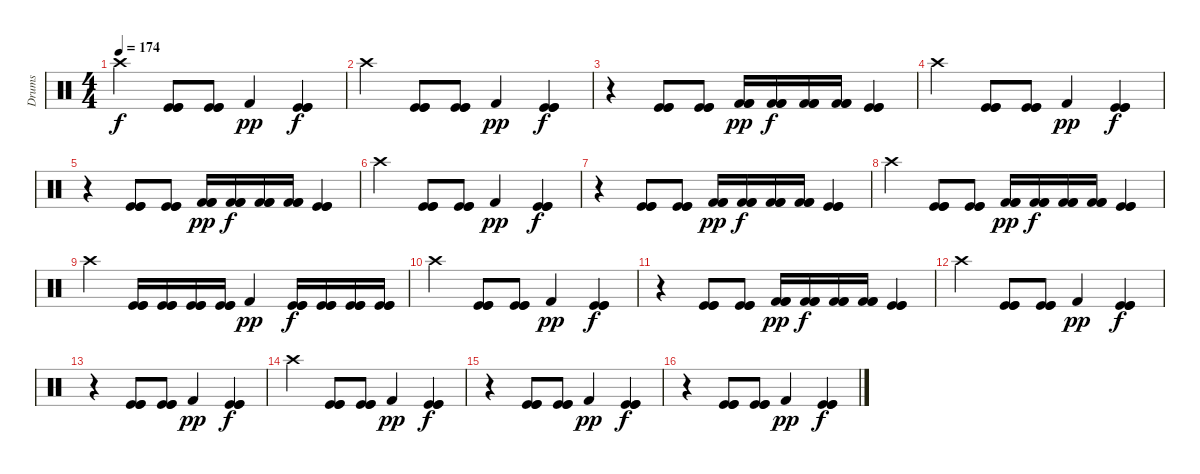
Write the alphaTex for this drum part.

\track ("Drums" "Drums") {instrument percussion}
\staff {score}
\articulation defaults
\ts (4 4)
\tempo 174
\clef neutral
\ks c "Crash high (hit)".4{dy f}
("Kick (hit)" "Kick (hit)" "Kick (hit)").8 ("Kick (hit)" "Kick (hit)" "Kick (hit)").8 "Kick (hit) 2".4{dy pp} ("Kick (hit)" "Kick (hit)" "Kick (hit)").4{dy f} |
"Crash high (hit)".4 ("Kick (hit)" "Kick (hit)" "Kick (hit)").8 ("Kick (hit)" "Kick (hit)" "Kick (hit)").8 "Kick (hit) 2".4{dy pp} ("Kick (hit)" "Kick (hit)" "Kick (hit)").4{dy f} |
r.4 ("Kick (hit)" "Kick (hit)" "Kick (hit)").8 ("Kick (hit)" "Kick (hit)" "Kick (hit)").8 ("Kick (hit) 2" "Kick (hit) 2" "Kick (hit) 2").16{dy pp} ("Kick (hit) 2" "Kick (hit) 2" "Kick (hit) 2").16{dy f} ("Kick (hit) 2" "Kick (hit) 2" "Kick (hit) 2").16 ("Kick (hit) 2" "Kick (hit) 2" "Kick (hit) 2").16 ("Kick (hit)" "Kick (hit)" "Kick (hit)").4 |
"Crash high (hit)".4 ("Kick (hit)" "Kick (hit)" "Kick (hit)").8 ("Kick (hit)" "Kick (hit)" "Kick (hit)").8 "Kick (hit) 2".4{dy pp} ("Kick (hit)" "Kick (hit)" "Kick (hit)").4{dy f} |
r.4 ("Kick (hit)" "Kick (hit)" "Kick (hit)").8 ("Kick (hit)" "Kick (hit)" "Kick (hit)").8 ("Kick (hit) 2" "Kick (hit) 2" "Kick (hit) 2").16{dy pp} ("Kick (hit) 2" "Kick (hit) 2" "Kick (hit) 2").16{dy f} ("Kick (hit) 2" "Kick (hit) 2" "Kick (hit) 2").16 ("Kick (hit) 2" "Kick (hit) 2" "Kick (hit) 2").16 ("Kick (hit)" "Kick (hit)" "Kick (hit)").4 |
"Crash high (hit)".4 ("Kick (hit)" "Kick (hit)" "Kick (hit)").8 ("Kick (hit)" "Kick (hit)" "Kick (hit)").8 "Kick (hit) 2".4{dy pp} ("Kick (hit)" "Kick (hit)" "Kick (hit)").4{dy f} |
r.4 ("Kick (hit)" "Kick (hit)" "Kick (hit)").8 ("Kick (hit)" "Kick (hit)" "Kick (hit)").8 ("Kick (hit) 2" "Kick (hit) 2" "Kick (hit) 2").16{dy pp} ("Kick (hit) 2" "Kick (hit) 2" "Kick (hit) 2").16{dy f} ("Kick (hit) 2" "Kick (hit) 2" "Kick (hit) 2").16 ("Kick (hit) 2" "Kick (hit) 2" "Kick (hit) 2").16 ("Kick (hit)" "Kick (hit)" "Kick (hit)").4 |
"Crash high (hit)".4 ("Kick (hit)" "Kick (hit)" "Kick (hit)").8 ("Kick (hit)" "Kick (hit)" "Kick (hit)").8 ("Kick (hit) 2" "Kick (hit) 2" "Kick (hit) 2").16{dy pp} ("Kick (hit) 2" "Kick (hit) 2" "Kick (hit) 2").16{dy f} ("Kick (hit) 2" "Kick (hit) 2" "Kick (hit) 2").16 ("Kick (hit) 2" "Kick (hit) 2" "Kick (hit) 2").16 ("Kick (hit)" "Kick (hit)" "Kick (hit)").4 |
"Crash high (hit)".4 ("Kick (hit)" "Kick (hit)" "Kick (hit)").16 ("Kick (hit)" "Kick (hit)" "Kick (hit)").16 ("Kick (hit)" "Kick (hit)" "Kick (hit)").16 ("Kick (hit)" "Kick (hit)" "Kick (hit)").16 "Kick (hit) 2".4{dy pp} ("Kick (hit)" "Kick (hit)" "Kick (hit)").16{dy f} ("Kick (hit)" "Kick (hit)" "Kick (hit)").16 ("Kick (hit)" "Kick (hit)" "Kick (hit)").16 ("Kick (hit)" "Kick (hit)" "Kick (hit)").16 |
"Crash high (hit)".4 ("Kick (hit)" "Kick (hit)" "Kick (hit)").8 ("Kick (hit)" "Kick (hit)" "Kick (hit)").8 "Kick (hit) 2".4{dy pp} ("Kick (hit)" "Kick (hit)" "Kick (hit)").4{dy f} |
r.4 ("Kick (hit)" "Kick (hit)" "Kick (hit)").8 ("Kick (hit)" "Kick (hit)" "Kick (hit)").8 ("Kick (hit) 2" "Kick (hit) 2" "Kick (hit) 2").16{dy pp} ("Kick (hit) 2" "Kick (hit) 2" "Kick (hit) 2").16{dy f} ("Kick (hit) 2" "Kick (hit) 2" "Kick (hit) 2").16 ("Kick (hit) 2" "Kick (hit) 2" "Kick (hit) 2").16 ("Kick (hit)" "Kick (hit)" "Kick (hit)").4 |
"Crash high (hit)".4 ("Kick (hit)" "Kick (hit)" "Kick (hit)").8 ("Kick (hit)" "Kick (hit)" "Kick (hit)").8 "Kick (hit) 2".4{dy pp} ("Kick (hit)" "Kick (hit)" "Kick (hit)").4{dy f} |
r.4 ("Kick (hit)" "Kick (hit)" "Kick (hit)").8 ("Kick (hit)" "Kick (hit)" "Kick (hit)").8 "Kick (hit) 2".4{dy pp} ("Kick (hit)" "Kick (hit)" "Kick (hit)").4{dy f} |
"Crash high (hit)".4 ("Kick (hit)" "Kick (hit)" "Kick (hit)").8 ("Kick (hit)" "Kick (hit)" "Kick (hit)").8 "Kick (hit) 2".4{dy pp} ("Kick (hit)" "Kick (hit)" "Kick (hit)").4{dy f} |
r.4 ("Kick (hit)" "Kick (hit)" "Kick (hit)").8 ("Kick (hit)" "Kick (hit)" "Kick (hit)").8 "Kick (hit) 2".4{dy pp} ("Kick (hit)" "Kick (hit)" "Kick (hit)").4{dy f} |
r.4 ("Kick (hit)" "Kick (hit)" "Kick (hit)").8 ("Kick (hit)" "Kick (hit)" "Kick (hit)").8 "Kick (hit) 2".4{dy pp} ("Kick (hit)" "Kick (hit)" "Kick (hit)").4{dy f}
